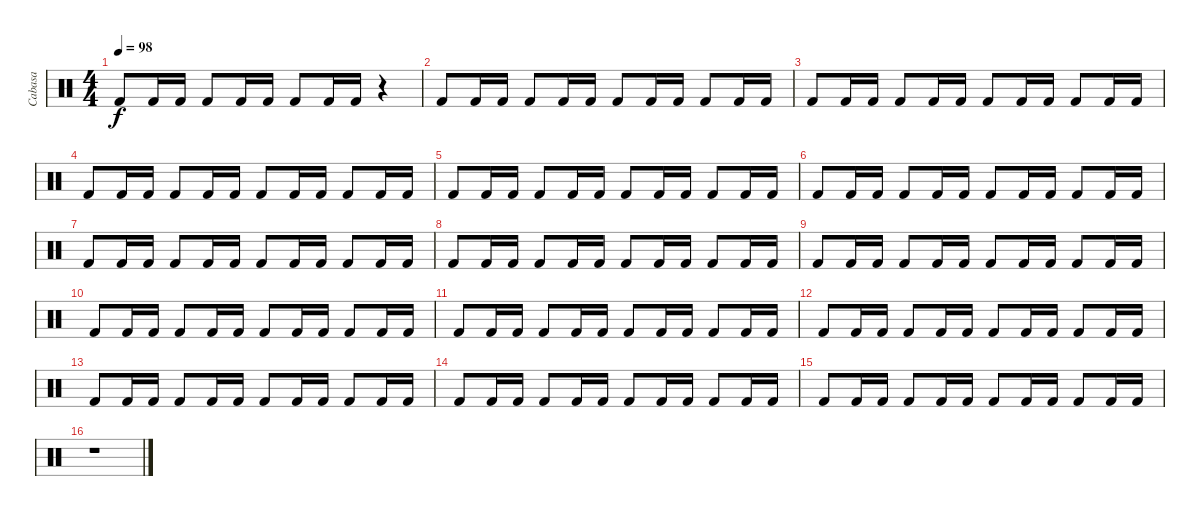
\track ("Cabasa" "Cabasa") {instrument percussion}
\staff {score}
\articulation defaults
\ts (4 4)
\tempo 98
\clef neutral
\ks c "Kick (hit) 2".8{dy f} "Kick (hit) 2".16 "Kick (hit) 2".16 "Kick (hit) 2".8 "Kick (hit) 2".16 "Kick (hit) 2".16 "Kick (hit) 2".8 "Kick (hit) 2".16 "Kick (hit) 2".16
r.4 |
"Kick (hit) 2".8 "Kick (hit) 2".16 "Kick (hit) 2".16 "Kick (hit) 2".8 "Kick (hit) 2".16 "Kick (hit) 2".16 "Kick (hit) 2".8 "Kick (hit) 2".16 "Kick (hit) 2".16 "Kick (hit) 2".8 "Kick (hit) 2".16 "Kick (hit) 2".16 |
"Kick (hit) 2".8 "Kick (hit) 2".16 "Kick (hit) 2".16 "Kick (hit) 2".8 "Kick (hit) 2".16 "Kick (hit) 2".16 "Kick (hit) 2".8 "Kick (hit) 2".16 "Kick (hit) 2".16 "Kick (hit) 2".8 "Kick (hit) 2".16 "Kick (hit) 2".16 |
"Kick (hit) 2".8 "Kick (hit) 2".16 "Kick (hit) 2".16 "Kick (hit) 2".8 "Kick (hit) 2".16 "Kick (hit) 2".16 "Kick (hit) 2".8 "Kick (hit) 2".16 "Kick (hit) 2".16 "Kick (hit) 2".8 "Kick (hit) 2".16 "Kick (hit) 2".16 |
"Kick (hit) 2".8 "Kick (hit) 2".16 "Kick (hit) 2".16 "Kick (hit) 2".8 "Kick (hit) 2".16 "Kick (hit) 2".16 "Kick (hit) 2".8 "Kick (hit) 2".16 "Kick (hit) 2".16 "Kick (hit) 2".8 "Kick (hit) 2".16 "Kick (hit) 2".16 |
"Kick (hit) 2".8 "Kick (hit) 2".16 "Kick (hit) 2".16 "Kick (hit) 2".8 "Kick (hit) 2".16 "Kick (hit) 2".16 "Kick (hit) 2".8 "Kick (hit) 2".16 "Kick (hit) 2".16 "Kick (hit) 2".8 "Kick (hit) 2".16 "Kick (hit) 2".16 |
"Kick (hit) 2".8 "Kick (hit) 2".16 "Kick (hit) 2".16 "Kick (hit) 2".8 "Kick (hit) 2".16 "Kick (hit) 2".16 "Kick (hit) 2".8 "Kick (hit) 2".16 "Kick (hit) 2".16 "Kick (hit) 2".8 "Kick (hit) 2".16 "Kick (hit) 2".16 |
"Kick (hit) 2".8 "Kick (hit) 2".16 "Kick (hit) 2".16 "Kick (hit) 2".8 "Kick (hit) 2".16 "Kick (hit) 2".16 "Kick (hit) 2".8 "Kick (hit) 2".16 "Kick (hit) 2".16 "Kick (hit) 2".8 "Kick (hit) 2".16 "Kick (hit) 2".16 |
"Kick (hit) 2".8 "Kick (hit) 2".16 "Kick (hit) 2".16 "Kick (hit) 2".8 "Kick (hit) 2".16 "Kick (hit) 2".16 "Kick (hit) 2".8 "Kick (hit) 2".16 "Kick (hit) 2".16 "Kick (hit) 2".8 "Kick (hit) 2".16 "Kick (hit) 2".16 |
"Kick (hit) 2".8 "Kick (hit) 2".16 "Kick (hit) 2".16 "Kick (hit) 2".8 "Kick (hit) 2".16 "Kick (hit) 2".16 "Kick (hit) 2".8 "Kick (hit) 2".16 "Kick (hit) 2".16 "Kick (hit) 2".8 "Kick (hit) 2".16 "Kick (hit) 2".16 |
"Kick (hit) 2".8 "Kick (hit) 2".16 "Kick (hit) 2".16 "Kick (hit) 2".8 "Kick (hit) 2".16 "Kick (hit) 2".16 "Kick (hit) 2".8 "Kick (hit) 2".16 "Kick (hit) 2".16 "Kick (hit) 2".8 "Kick (hit) 2".16 "Kick (hit) 2".16 |
"Kick (hit) 2".8 "Kick (hit) 2".16 "Kick (hit) 2".16 "Kick (hit) 2".8 "Kick (hit) 2".16 "Kick (hit) 2".16 "Kick (hit) 2".8 "Kick (hit) 2".16 "Kick (hit) 2".16 "Kick (hit) 2".8 "Kick (hit) 2".16 "Kick (hit) 2".16 |
"Kick (hit) 2".8 "Kick (hit) 2".16 "Kick (hit) 2".16 "Kick (hit) 2".8 "Kick (hit) 2".16 "Kick (hit) 2".16 "Kick (hit) 2".8 "Kick (hit) 2".16 "Kick (hit) 2".16 "Kick (hit) 2".8 "Kick (hit) 2".16 "Kick (hit) 2".16 |
"Kick (hit) 2".8 "Kick (hit) 2".16 "Kick (hit) 2".16 "Kick (hit) 2".8 "Kick (hit) 2".16 "Kick (hit) 2".16 "Kick (hit) 2".8 "Kick (hit) 2".16 "Kick (hit) 2".16 "Kick (hit) 2".8 "Kick (hit) 2".16 "Kick (hit) 2".16 |
"Kick (hit) 2".8 "Kick (hit) 2".16 "Kick (hit) 2".16 "Kick (hit) 2".8 "Kick (hit) 2".16 "Kick (hit) 2".16 "Kick (hit) 2".8 "Kick (hit) 2".16 "Kick (hit) 2".16 "Kick (hit) 2".8 "Kick (hit) 2".16 "Kick (hit) 2".16 |
r.1
